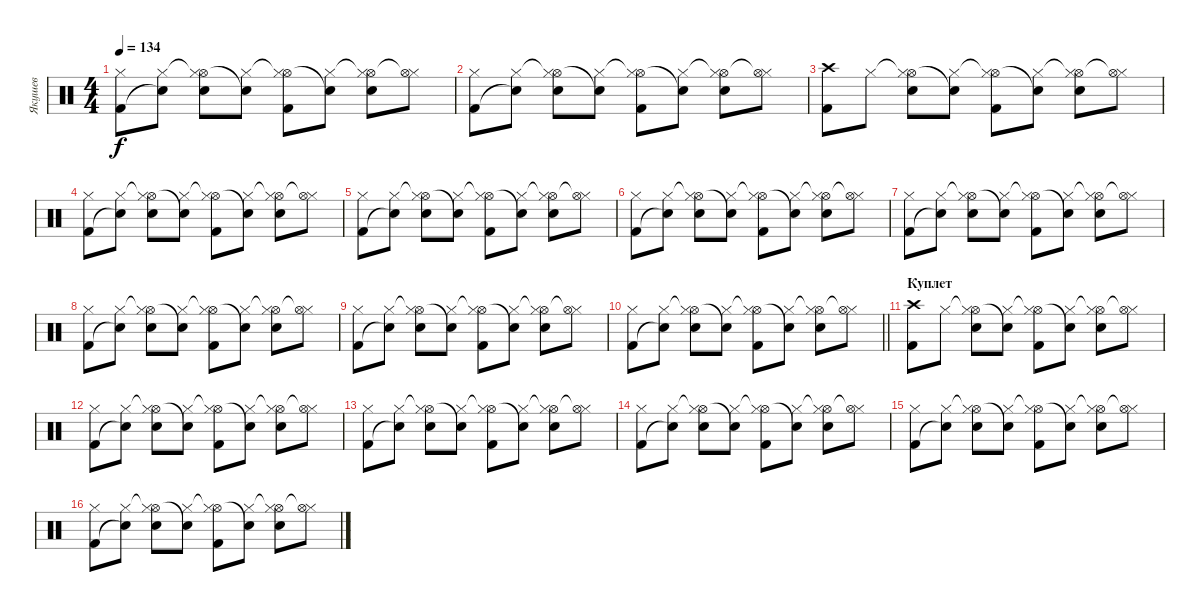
\track ("Якушев" "Якушев") {instrument percussion}
\staff {score}
\articulation defaults
\ts (4 4)
\tempo 134
\clef neutral
\ks c
("Hi-Hat (closed)" "Kick (hit) 2").8{dy f} ("Hi-Hat (closed)" "Snare (hit)"{t}).8 ("Hi-Hat (open)"{t} "Hi-Hat (closed)" "Snare (hit) 2").8 ("Hi-Hat (closed)" "Snare (hit)"{t}).8 ("Hi-Hat (open)"{t} "Hi-Hat (closed)" "Kick (hit) 2").8 ("Hi-Hat (closed)" "Snare (hit)"{t}).8 ("Hi-Hat (open)"{t} "Hi-Hat (closed)" "Snare (hit) 2").8 ("Hi-Hat (closed)" "Hi-Hat (open)"{t}).8 |
("Hi-Hat (closed)" "Kick (hit) 2").8 ("Hi-Hat (closed)" "Snare (hit)"{t}).8 ("Hi-Hat (open)"{t} "Hi-Hat (closed)" "Snare (hit) 2").8 ("Hi-Hat (closed)" "Snare (hit)"{t}).8 ("Hi-Hat (open)"{t} "Hi-Hat (closed)" "Kick (hit) 2").8 ("Hi-Hat (closed)" "Snare (hit)"{t}).8 ("Hi-Hat (open)"{t} "Hi-Hat (closed)" "Snare (hit) 2").8 ("Hi-Hat (closed)" "Hi-Hat (open)"{t}).8 |
("Crash high (hit)" "Kick (hit) 2").8 "Hi-Hat (closed)".8 ("Hi-Hat (open)"{t} "Hi-Hat (closed)" "Snare (hit) 2").8 ("Hi-Hat (closed)" "Snare (hit)"{t}).8 ("Hi-Hat (open)"{t} "Hi-Hat (closed)" "Kick (hit) 2").8 ("Hi-Hat (closed)" "Snare (hit)"{t}).8 ("Hi-Hat (open)"{t} "Hi-Hat (closed)" "Snare (hit) 2").8 ("Hi-Hat (closed)" "Hi-Hat (open)"{t}).8 |
("Hi-Hat (closed)" "Kick (hit) 2").8 ("Hi-Hat (closed)" "Snare (hit)"{t}).8 ("Hi-Hat (open)"{t} "Hi-Hat (closed)" "Snare (hit) 2").8 ("Hi-Hat (closed)" "Snare (hit)"{t}).8 ("Hi-Hat (open)"{t} "Hi-Hat (closed)" "Kick (hit) 2").8 ("Hi-Hat (closed)" "Snare (hit)"{t}).8 ("Hi-Hat (open)"{t} "Hi-Hat (closed)" "Snare (hit) 2").8 ("Hi-Hat (closed)" "Hi-Hat (open)"{t}).8 |
("Hi-Hat (closed)" "Kick (hit) 2").8 ("Hi-Hat (closed)" "Snare (hit)"{t}).8 ("Hi-Hat (open)"{t} "Hi-Hat (closed)" "Snare (hit) 2").8 ("Hi-Hat (closed)" "Snare (hit)"{t}).8 ("Hi-Hat (open)"{t} "Hi-Hat (closed)" "Kick (hit) 2").8 ("Hi-Hat (closed)" "Snare (hit)"{t}).8 ("Hi-Hat (open)"{t} "Hi-Hat (closed)" "Snare (hit) 2").8 ("Hi-Hat (closed)" "Hi-Hat (open)"{t}).8 |
("Hi-Hat (closed)" "Kick (hit) 2").8 ("Hi-Hat (closed)" "Snare (hit)"{t}).8 ("Hi-Hat (open)"{t} "Hi-Hat (closed)" "Snare (hit) 2").8 ("Hi-Hat (closed)" "Snare (hit)"{t}).8 ("Hi-Hat (open)"{t} "Hi-Hat (closed)" "Kick (hit) 2").8 ("Hi-Hat (closed)" "Snare (hit)"{t}).8 ("Hi-Hat (open)"{t} "Hi-Hat (closed)" "Snare (hit) 2").8 ("Hi-Hat (closed)" "Hi-Hat (open)"{t}).8 |
("Hi-Hat (closed)" "Kick (hit) 2").8 ("Hi-Hat (closed)" "Snare (hit)"{t}).8 ("Hi-Hat (open)"{t} "Hi-Hat (closed)" "Snare (hit) 2").8 ("Hi-Hat (closed)" "Snare (hit)"{t}).8 ("Hi-Hat (open)"{t} "Hi-Hat (closed)" "Kick (hit) 2").8 ("Hi-Hat (closed)" "Snare (hit)"{t}).8 ("Hi-Hat (open)"{t} "Hi-Hat (closed)" "Snare (hit) 2").8 ("Hi-Hat (closed)" "Hi-Hat (open)"{t}).8 |
("Hi-Hat (closed)" "Kick (hit) 2").8 ("Hi-Hat (closed)" "Snare (hit)"{t}).8 ("Hi-Hat (open)"{t} "Hi-Hat (closed)" "Snare (hit) 2").8 ("Hi-Hat (closed)" "Snare (hit)"{t}).8 ("Hi-Hat (open)"{t} "Hi-Hat (closed)" "Kick (hit) 2").8 ("Hi-Hat (closed)" "Snare (hit)"{t}).8 ("Hi-Hat (open)"{t} "Hi-Hat (closed)" "Snare (hit) 2").8 ("Hi-Hat (closed)" "Hi-Hat (open)"{t}).8 |
("Hi-Hat (closed)" "Kick (hit) 2").8 ("Hi-Hat (closed)" "Snare (hit)"{t}).8 ("Hi-Hat (open)"{t} "Hi-Hat (closed)" "Snare (hit) 2").8 ("Hi-Hat (closed)" "Snare (hit)"{t}).8 ("Hi-Hat (open)"{t} "Hi-Hat (closed)" "Kick (hit) 2").8 ("Hi-Hat (closed)" "Snare (hit)"{t}).8 ("Hi-Hat (open)"{t} "Hi-Hat (closed)" "Snare (hit) 2").8 ("Hi-Hat (closed)" "Hi-Hat (open)"{t}).8 |
\barLineRight lightlight
("Hi-Hat (closed)" "Kick (hit) 2").8 ("Hi-Hat (closed)" "Snare (hit)"{t}).8 ("Hi-Hat (open)"{t} "Hi-Hat (closed)" "Snare (hit) 2").8 ("Hi-Hat (closed)" "Snare (hit)"{t}).8 ("Hi-Hat (open)"{t} "Hi-Hat (closed)" "Kick (hit) 2").8 ("Hi-Hat (closed)" "Snare (hit)"{t}).8 ("Hi-Hat (open)"{t} "Hi-Hat (closed)" "Snare (hit) 2").8 ("Hi-Hat (closed)" "Hi-Hat (open)"{t}).8 |
\section ("" "Куплет")
("Crash high (hit)" "Kick (hit) 2").8 "Hi-Hat (closed)".8 ("Hi-Hat (open)"{t} "Hi-Hat (closed)" "Snare (hit) 2").8 ("Hi-Hat (closed)" "Snare (hit)"{t}).8 ("Hi-Hat (open)"{t} "Hi-Hat (closed)" "Kick (hit) 2").8 ("Hi-Hat (closed)" "Snare (hit)"{t}).8 ("Hi-Hat (open)"{t} "Hi-Hat (closed)" "Snare (hit) 2").8 ("Hi-Hat (closed)" "Hi-Hat (open)"{t}).8 |
("Hi-Hat (closed)" "Kick (hit) 2").8 ("Hi-Hat (closed)" "Snare (hit)"{t}).8 ("Hi-Hat (open)"{t} "Hi-Hat (closed)" "Snare (hit) 2").8 ("Hi-Hat (closed)" "Snare (hit)"{t}).8 ("Hi-Hat (open)"{t} "Hi-Hat (closed)" "Kick (hit) 2").8 ("Hi-Hat (closed)" "Snare (hit)"{t}).8 ("Hi-Hat (open)"{t} "Hi-Hat (closed)" "Snare (hit) 2").8 ("Hi-Hat (closed)" "Hi-Hat (open)"{t}).8 |
("Hi-Hat (closed)" "Kick (hit) 2").8 ("Hi-Hat (closed)" "Snare (hit)"{t}).8 ("Hi-Hat (open)"{t} "Hi-Hat (closed)" "Snare (hit) 2").8 ("Hi-Hat (closed)" "Snare (hit)"{t}).8 ("Hi-Hat (open)"{t} "Hi-Hat (closed)" "Kick (hit) 2").8 ("Hi-Hat (closed)" "Snare (hit)"{t}).8 ("Hi-Hat (open)"{t} "Hi-Hat (closed)" "Snare (hit) 2").8 ("Hi-Hat (closed)" "Hi-Hat (open)"{t}).8 |
("Hi-Hat (closed)" "Kick (hit) 2").8 ("Hi-Hat (closed)" "Snare (hit)"{t}).8 ("Hi-Hat (open)"{t} "Hi-Hat (closed)" "Snare (hit) 2").8 ("Hi-Hat (closed)" "Snare (hit)"{t}).8 ("Hi-Hat (open)"{t} "Hi-Hat (closed)" "Kick (hit) 2").8 ("Hi-Hat (closed)" "Snare (hit)"{t}).8 ("Hi-Hat (open)"{t} "Hi-Hat (closed)" "Snare (hit) 2").8 ("Hi-Hat (closed)" "Hi-Hat (open)"{t}).8 |
("Hi-Hat (closed)" "Kick (hit) 2").8 ("Hi-Hat (closed)" "Snare (hit)"{t}).8 ("Hi-Hat (open)"{t} "Hi-Hat (closed)" "Snare (hit) 2").8 ("Hi-Hat (closed)" "Snare (hit)"{t}).8 ("Hi-Hat (open)"{t} "Hi-Hat (closed)" "Kick (hit) 2").8 ("Hi-Hat (closed)" "Snare (hit)"{t}).8 ("Hi-Hat (open)"{t} "Hi-Hat (closed)" "Snare (hit) 2").8 ("Hi-Hat (closed)" "Hi-Hat (open)"{t}).8 |
("Hi-Hat (closed)" "Kick (hit) 2").8 ("Hi-Hat (closed)" "Snare (hit)"{t}).8 ("Hi-Hat (open)"{t} "Hi-Hat (closed)" "Snare (hit) 2").8 ("Hi-Hat (closed)" "Snare (hit)"{t}).8 ("Hi-Hat (open)"{t} "Hi-Hat (closed)" "Kick (hit) 2").8 ("Hi-Hat (closed)" "Snare (hit)"{t}).8 ("Hi-Hat (open)"{t} "Hi-Hat (closed)" "Snare (hit) 2").8 ("Hi-Hat (closed)" "Hi-Hat (open)"{t}).8
